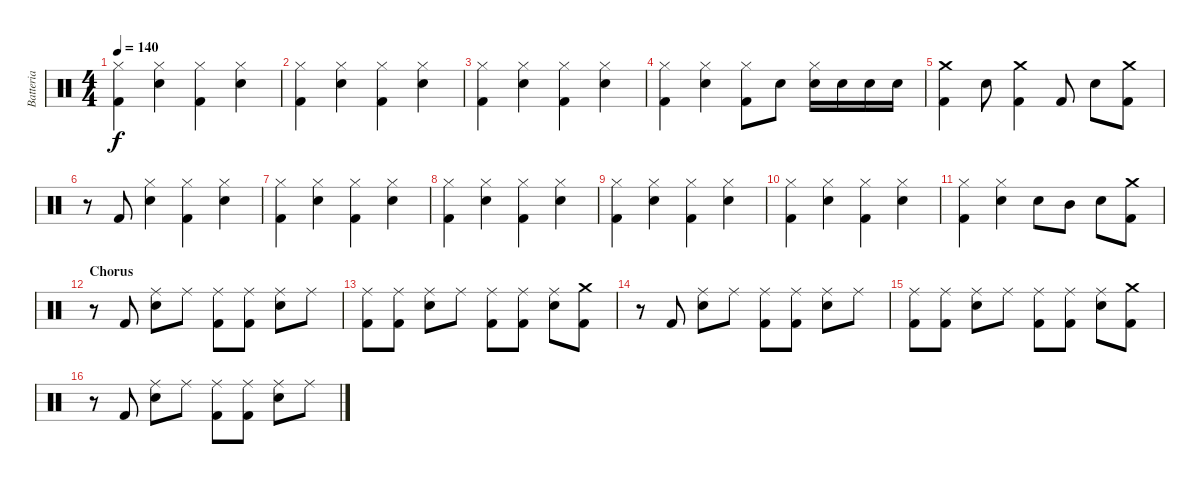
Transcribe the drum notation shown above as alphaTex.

\track ("Batteria" "Batteria") {instrument percussion}
\staff {score}
\articulation defaults
\ts (4 4)
\tempo 140
\clef neutral
\ks c
("Hi-Hat (closed)" "Kick (hit) 2").4{dy f} ("Hi-Hat (closed)" "Snare (hit) 2").4 ("Hi-Hat (closed)" "Kick (hit) 2").4 ("Hi-Hat (closed)" "Snare (hit) 2").4 |
("Hi-Hat (closed)" "Kick (hit) 2").4 ("Hi-Hat (closed)" "Snare (hit) 2").4 ("Hi-Hat (closed)" "Kick (hit) 2").4 ("Hi-Hat (closed)" "Snare (hit) 2").4 |
("Hi-Hat (closed)" "Kick (hit) 2").4 ("Hi-Hat (closed)" "Snare (hit) 2").4 ("Hi-Hat (closed)" "Kick (hit) 2").4 ("Hi-Hat (closed)" "Snare (hit) 2").4 |
("Hi-Hat (closed)" "Kick (hit) 2").4 ("Hi-Hat (closed)" "Snare (hit) 2").4 ("Hi-Hat (closed)" "Kick (hit) 2").8 "Snare (hit) 2".8 ("Hi-Hat (closed)" "Snare (hit) 2").16 "Snare (hit) 2".16 "Snare (hit) 2".16 "Snare (hit) 2".16 |
("Crash medium (hit)" "Kick (hit) 2").4 "Snare (hit) 2".8 ("Crash medium (hit)" "Kick (hit) 2").4 "Kick (hit) 2".8 "Snare (hit) 2".8 ("Crash medium (hit)" "Kick (hit) 2").8 |
r.8 "Kick (hit) 2".8 ("Hi-Hat (closed)" "Snare (hit) 2").4 ("Hi-Hat (closed)" "Kick (hit) 2").4 ("Hi-Hat (closed)" "Snare (hit) 2").4 |
("Hi-Hat (closed)" "Kick (hit) 2").4 ("Hi-Hat (closed)" "Snare (hit) 2").4 ("Hi-Hat (closed)" "Kick (hit) 2").4 ("Hi-Hat (closed)" "Snare (hit) 2").4 |
("Hi-Hat (closed)" "Kick (hit) 2").4 ("Hi-Hat (closed)" "Snare (hit) 2").4 ("Hi-Hat (closed)" "Kick (hit) 2").4 ("Hi-Hat (closed)" "Snare (hit) 2").4 |
("Hi-Hat (closed)" "Kick (hit) 2").4 ("Hi-Hat (closed)" "Snare (hit) 2").4 ("Hi-Hat (closed)" "Kick (hit) 2").4 ("Hi-Hat (closed)" "Snare (hit) 2").4 |
("Hi-Hat (closed)" "Kick (hit) 2").4 ("Hi-Hat (closed)" "Snare (hit) 2").4 ("Hi-Hat (closed)" "Kick (hit) 2").4 ("Hi-Hat (closed)" "Snare (hit) 2").4 |
("Hi-Hat (closed)" "Kick (hit) 2").4 ("Hi-Hat (closed)" "Snare (hit) 2").4 "Snare (hit) 2".8 "Mid Tom (hit)".8 "Snare (hit) 2".8 ("Crash medium (hit)" "Kick (hit) 2").8 |
\section ("" "Chorus")
r.8 "Kick (hit) 2".8 ("Ride (middle)" "Snare (hit) 2").8 "Ride (middle)".8 ("Ride (middle)" "Kick (hit) 2").8 ("Ride (middle)" "Kick (hit) 2").8 ("Ride (middle)" "Snare (hit) 2").8 "Ride (middle)".8 |
("Ride (middle)" "Kick (hit) 2").8 ("Ride (middle)" "Kick (hit) 2").8 ("Ride (middle)" "Snare (hit) 2").8 "Ride (middle)".8 ("Ride (middle)" "Kick (hit) 2").8 ("Ride (middle)" "Kick (hit) 2").8 ("Ride (middle)" "Snare (hit) 2").8 ("Crash medium (hit)" "Kick (hit) 2").8 |
r.8 "Kick (hit) 2".8 ("Ride (middle)" "Snare (hit) 2").8 "Ride (middle)".8 ("Ride (middle)" "Kick (hit) 2").8 ("Ride (middle)" "Kick (hit) 2").8 ("Ride (middle)" "Snare (hit) 2").8 "Ride (middle)".8 |
("Ride (middle)" "Kick (hit) 2").8 ("Ride (middle)" "Kick (hit) 2").8 ("Ride (middle)" "Snare (hit) 2").8 "Ride (middle)".8 ("Ride (middle)" "Kick (hit) 2").8 ("Ride (middle)" "Kick (hit) 2").8 ("Ride (middle)" "Snare (hit) 2").8 ("Crash medium (hit)" "Kick (hit) 2").8 |
r.8 "Kick (hit) 2".8 ("Ride (middle)" "Snare (hit) 2").8 "Ride (middle)".8 ("Ride (middle)" "Kick (hit) 2").8 ("Ride (middle)" "Kick (hit) 2").8 ("Ride (middle)" "Snare (hit) 2").8 "Ride (middle)".8
